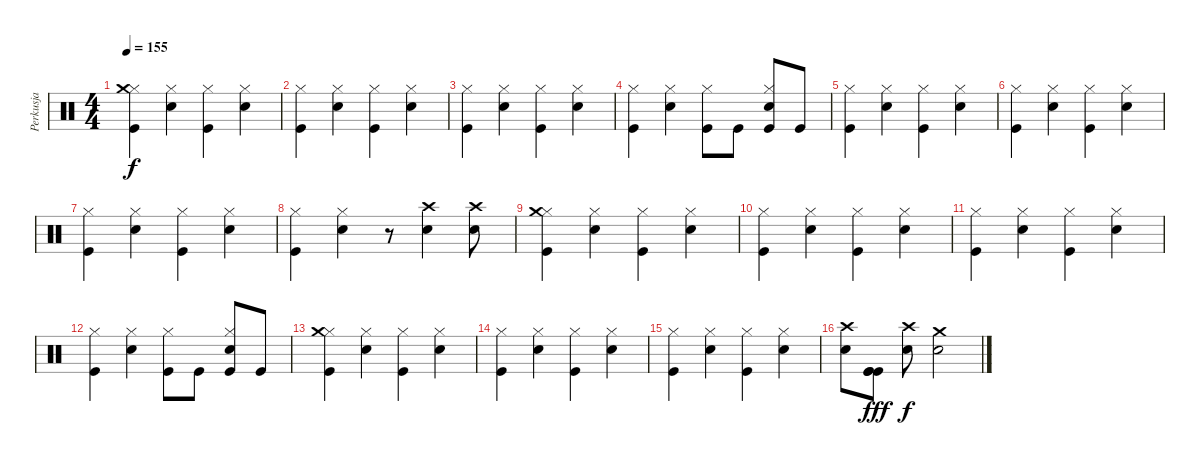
\track ("Perkusja" "Perkusja") {instrument percussion}
\staff {score}
\articulation defaults
\ts (4 4)
\tempo 155
\clef neutral
\ks c
("Kick (hit)" "Hi-Hat (closed)" "Crash medium (hit)").4{dy f} ("Hi-Hat (closed)" "Snare (hit) 2").4 ("Kick (hit)" "Hi-Hat (closed)").4 ("Snare (hit) 2" "Hi-Hat (closed)").4 |
("Kick (hit)" "Hi-Hat (closed)").4 ("Hi-Hat (closed)" "Snare (hit) 2").4 ("Kick (hit)" "Hi-Hat (closed)").4 ("Snare (hit) 2" "Hi-Hat (closed)").4 |
("Kick (hit)" "Hi-Hat (closed)").4 ("Hi-Hat (closed)" "Snare (hit) 2").4 ("Kick (hit)" "Hi-Hat (closed)").4 ("Snare (hit) 2" "Hi-Hat (closed)").4 |
("Kick (hit)" "Hi-Hat (closed)").4 ("Hi-Hat (closed)" "Snare (hit) 2").4 ("Kick (hit)" "Hi-Hat (closed)").8 "Kick (hit)".8 ("Kick (hit)" "Snare (hit) 2" "Hi-Hat (closed)").8 "Kick (hit)".8 |
("Kick (hit)" "Hi-Hat (closed)").4 ("Hi-Hat (closed)" "Snare (hit) 2").4 ("Kick (hit)" "Hi-Hat (closed)").4 ("Snare (hit) 2" "Hi-Hat (closed)").4 |
("Kick (hit)" "Hi-Hat (closed)").4 ("Hi-Hat (closed)" "Snare (hit) 2").4 ("Kick (hit)" "Hi-Hat (closed)").4 ("Snare (hit) 2" "Hi-Hat (closed)").4 |
("Kick (hit)" "Hi-Hat (closed)").4 ("Hi-Hat (closed)" "Snare (hit) 2").4 ("Kick (hit)" "Hi-Hat (closed)").4 ("Snare (hit) 2" "Hi-Hat (closed)").4 |
("Kick (hit)" "Hi-Hat (closed)").4 ("Hi-Hat (closed)" "Snare (hit) 2").4 r.8 ("Snare (hit) 2" "Crash high (hit)").4 ("Snare (hit) 2" "Crash high (hit)").8 |
("Kick (hit)" "Hi-Hat (closed)" "Crash medium (hit)").4 ("Hi-Hat (closed)" "Snare (hit) 2").4 ("Kick (hit)" "Hi-Hat (closed)").4 ("Snare (hit) 2" "Hi-Hat (closed)").4 |
("Kick (hit)" "Hi-Hat (closed)").4 ("Hi-Hat (closed)" "Snare (hit) 2").4 ("Kick (hit)" "Hi-Hat (closed)").4 ("Snare (hit) 2" "Hi-Hat (closed)").4 |
("Kick (hit)" "Hi-Hat (closed)").4 ("Hi-Hat (closed)" "Snare (hit) 2").4 ("Kick (hit)" "Hi-Hat (closed)").4 ("Snare (hit) 2" "Hi-Hat (closed)").4 |
("Kick (hit)" "Hi-Hat (closed)").4 ("Hi-Hat (closed)" "Snare (hit) 2").4 ("Kick (hit)" "Hi-Hat (closed)").8 "Kick (hit)".8 ("Kick (hit)" "Snare (hit) 2" "Hi-Hat (closed)").8 "Kick (hit)".8 |
("Kick (hit)" "Hi-Hat (closed)" "Crash medium (hit)").4 ("Hi-Hat (closed)" "Snare (hit) 2").4 ("Kick (hit)" "Hi-Hat (closed)").4 ("Snare (hit) 2" "Hi-Hat (closed)").4 |
("Kick (hit)" "Hi-Hat (closed)").4 ("Hi-Hat (closed)" "Snare (hit) 2").4 ("Kick (hit)" "Hi-Hat (closed)").4 ("Snare (hit) 2" "Hi-Hat (closed)").4 |
("Kick (hit)" "Hi-Hat (closed)").4 ("Hi-Hat (closed)" "Snare (hit) 2").4 ("Kick (hit)" "Hi-Hat (closed)").4 ("Snare (hit) 2" "Hi-Hat (closed)").4 |
("Crash high (hit)" "Snare (hit) 2").8 ("Kick (hit)" "Kick (hit)" "Kick (hit)").8{dy fff} ("Snare (hit) 2" "Crash high (hit)").8{dy f} ("Snare (hit) 2" "Crash medium (hit)").2
